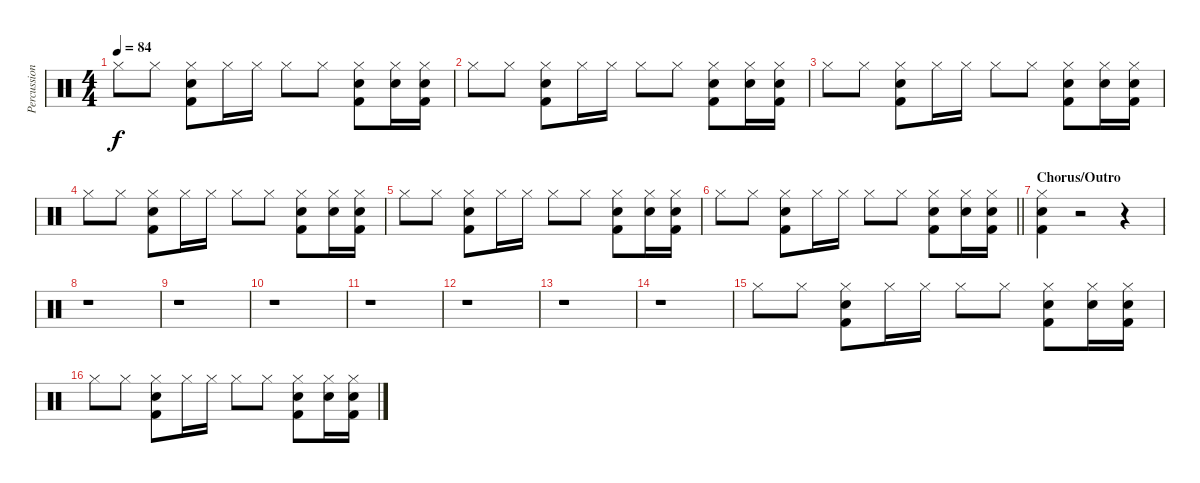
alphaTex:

\track ("Percussion" "Percussion") {instrument percussion}
\staff {score}
\articulation defaults
\ts (4 4)
\tempo 84
\clef neutral
\ks c "Hi-Hat (closed)".8{dy f} "Hi-Hat (closed)".8
("Hi-Hat (closed)" "Snare (hit) 2" "Kick (hit) 2").8 "Hi-Hat (closed)".16 "Hi-Hat (closed)".16 "Hi-Hat (closed)".8 "Hi-Hat (closed)".8 ("Hi-Hat (closed)" "Snare (hit) 2" "Kick (hit) 2").8 ("Hi-Hat (closed)" "Snare (hit) 2").16 ("Hi-Hat (closed)" "Snare (hit) 2" "Kick (hit) 2").16 |
"Hi-Hat (closed)".8 "Hi-Hat (closed)".8 ("Hi-Hat (closed)" "Snare (hit) 2" "Kick (hit) 2").8 "Hi-Hat (closed)".16 "Hi-Hat (closed)".16 "Hi-Hat (closed)".8 "Hi-Hat (closed)".8 ("Hi-Hat (closed)" "Snare (hit) 2" "Kick (hit) 2").8 ("Hi-Hat (closed)" "Snare (hit) 2").16 ("Hi-Hat (closed)" "Snare (hit) 2" "Kick (hit) 2").16 |
"Hi-Hat (closed)".8 "Hi-Hat (closed)".8 ("Hi-Hat (closed)" "Snare (hit) 2" "Kick (hit) 2").8 "Hi-Hat (closed)".16 "Hi-Hat (closed)".16 "Hi-Hat (closed)".8 "Hi-Hat (closed)".8 ("Hi-Hat (closed)" "Snare (hit) 2" "Kick (hit) 2").8 ("Hi-Hat (closed)" "Snare (hit) 2").16 ("Hi-Hat (closed)" "Snare (hit) 2" "Kick (hit) 2").16 |
"Hi-Hat (closed)".8 "Hi-Hat (closed)".8 ("Hi-Hat (closed)" "Snare (hit) 2" "Kick (hit) 2").8 "Hi-Hat (closed)".16 "Hi-Hat (closed)".16 "Hi-Hat (closed)".8 "Hi-Hat (closed)".8 ("Hi-Hat (closed)" "Snare (hit) 2" "Kick (hit) 2").8 ("Hi-Hat (closed)" "Snare (hit) 2").16 ("Hi-Hat (closed)" "Snare (hit) 2" "Kick (hit) 2").16 |
"Hi-Hat (closed)".8 "Hi-Hat (closed)".8 ("Hi-Hat (closed)" "Snare (hit) 2" "Kick (hit) 2").8 "Hi-Hat (closed)".16 "Hi-Hat (closed)".16 "Hi-Hat (closed)".8 "Hi-Hat (closed)".8 ("Hi-Hat (closed)" "Snare (hit) 2" "Kick (hit) 2").8 ("Hi-Hat (closed)" "Snare (hit) 2").16 ("Hi-Hat (closed)" "Snare (hit) 2" "Kick (hit) 2").16 |
\barLineRight lightlight "Hi-Hat (closed)".8 "Hi-Hat (closed)".8
("Hi-Hat (closed)" "Snare (hit) 2" "Kick (hit) 2").8 "Hi-Hat (closed)".16 "Hi-Hat (closed)".16 "Hi-Hat (closed)".8 "Hi-Hat (closed)".8 ("Hi-Hat (closed)" "Snare (hit) 2" "Kick (hit) 2").8 ("Hi-Hat (closed)" "Snare (hit) 2").16 ("Hi-Hat (closed)" "Snare (hit) 2" "Kick (hit) 2").16 |
\section ("" "Chorus/Outro")
("Hi-Hat (closed)" "Snare (hit) 2" "Kick (hit) 2").4 r.2 r.4 |
r.1 |
r.1 |
r.1 |
r.1 |
r.1 |
r.1 |
r.1 |
"Hi-Hat (closed)".8 "Hi-Hat (closed)".8 ("Hi-Hat (closed)" "Snare (hit) 2" "Kick (hit) 2").8 "Hi-Hat (closed)".16 "Hi-Hat (closed)".16 "Hi-Hat (closed)".8 "Hi-Hat (closed)".8 ("Hi-Hat (closed)" "Snare (hit) 2" "Kick (hit) 2").8 ("Hi-Hat (closed)" "Snare (hit) 2").16 ("Hi-Hat (closed)" "Snare (hit) 2" "Kick (hit) 2").16 |
"Hi-Hat (closed)".8 "Hi-Hat (closed)".8 ("Hi-Hat (closed)" "Snare (hit) 2" "Kick (hit) 2").8 "Hi-Hat (closed)".16 "Hi-Hat (closed)".16 "Hi-Hat (closed)".8 "Hi-Hat (closed)".8 ("Hi-Hat (closed)" "Snare (hit) 2" "Kick (hit) 2").8 ("Hi-Hat (closed)" "Snare (hit) 2").16 ("Hi-Hat (closed)" "Snare (hit) 2" "Kick (hit) 2").16
